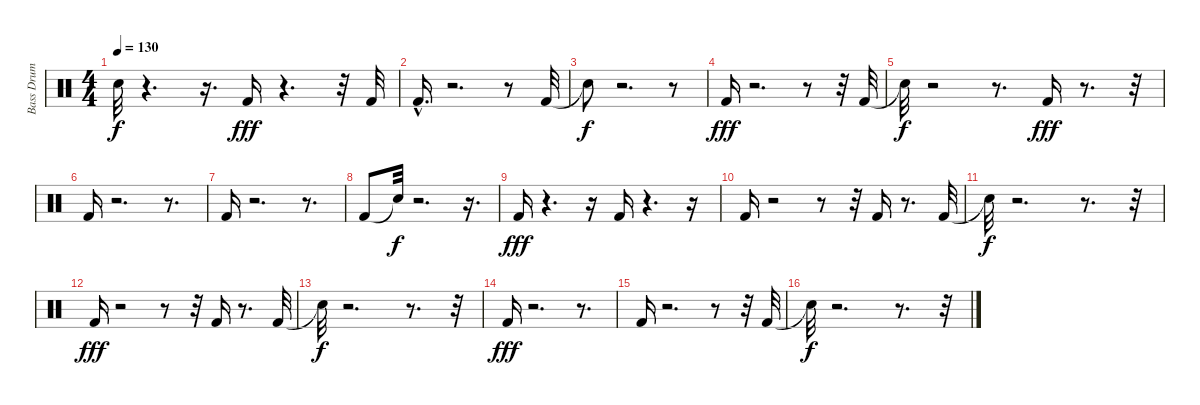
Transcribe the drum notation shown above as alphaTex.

\track ("Bass Drum" "Bass Drum") {instrument percussion}
\staff {score}
\articulation defaults
\ts (4 4)
\tempo 130
\clef neutral
\ks c "Snare (hit)"{t}.32{dy f}
r.4{d} r.16{d} "Kick (hit) 2".16{dy fff} r.4{d} r.32 "Kick (hit) 2".32 |
"Kick (hit) 2"{hac}.16{d} r.2{d} r.8 "Kick (hit) 2".32 |
"Snare (hit)"{t}.8{dy f} r.2{d} r.8 |
"Kick (hit) 2".16{dy fff} r.2{d} r.8 r.32 "Kick (hit) 2".32 |
"Snare (hit)"{t}.32{dy f} r.2 r.8{d} "Kick (hit) 2".16{dy fff} r.8{d} r.32 |
"Kick (hit) 2".16 r.2{d} r.8{d} |
"Kick (hit) 2".16 r.2{d} r.8{d} |
"Kick (hit) 2".8 "Snare (hit)"{t}.32{dy f} r.2{d} r.16{d} |
"Kick (hit) 2".16{dy fff} r.4{d} r.16 "Kick (hit) 2".16 r.4{d} r.16 |
"Kick (hit) 2".16 r.2 r.8 r.32 "Kick (hit) 2".16 r.8{d} "Kick (hit) 2".32 |
"Snare (hit)"{t}.32{dy f} r.2{d} r.8{d} r.32 |
"Kick (hit) 2".16{dy fff} r.2 r.8 r.32 "Kick (hit) 2".16 r.8{d} "Kick (hit) 2".32 |
"Snare (hit)"{t}.32{dy f} r.2{d} r.8{d} r.32 |
"Kick (hit) 2".16{dy fff} r.2{d} r.8{d} |
"Kick (hit) 2".16 r.2{d} r.8 r.32 "Kick (hit) 2".32 |
"Snare (hit)"{t}.32{dy f} r.2{d} r.8{d} r.32
